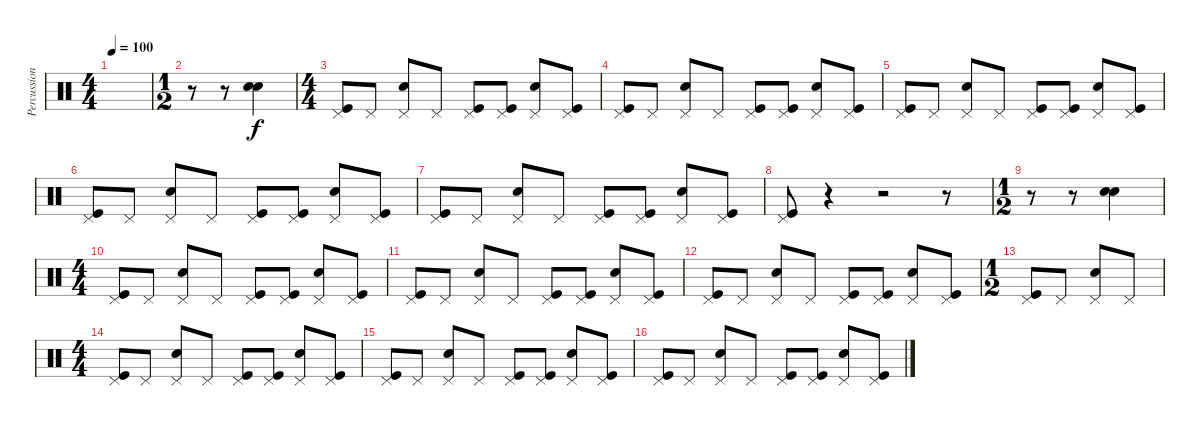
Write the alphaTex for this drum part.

\track ("Percussion" "Percussion") {instrument percussion}
\staff {score}
\articulation defaults
\ts (4 4)
\tempo 100
\clef neutral
\ks c
|
\ts (1 2)
r.8 r.8 ("Snare (hit) 2" "Snare (hit) 2").4 |
\ts (4 4)
("Kick (hit)" "Pedal Hi-Hat (hit)").8 "Pedal Hi-Hat (hit)".8 ("Snare (hit) 2" "Pedal Hi-Hat (hit)").8 "Pedal Hi-Hat (hit)".8 ("Kick (hit)" "Pedal Hi-Hat (hit)").8 ("Kick (hit)" "Pedal Hi-Hat (hit)").8 ("Snare (hit) 2" "Pedal Hi-Hat (hit)").8 ("Kick (hit)" "Pedal Hi-Hat (hit)").8 |
("Kick (hit)" "Pedal Hi-Hat (hit)").8 "Pedal Hi-Hat (hit)".8 ("Snare (hit) 2" "Pedal Hi-Hat (hit)").8 "Pedal Hi-Hat (hit)".8 ("Kick (hit)" "Pedal Hi-Hat (hit)").8 ("Kick (hit)" "Pedal Hi-Hat (hit)").8 ("Snare (hit) 2" "Pedal Hi-Hat (hit)").8 ("Kick (hit)" "Pedal Hi-Hat (hit)").8 |
("Kick (hit)" "Pedal Hi-Hat (hit)").8 "Pedal Hi-Hat (hit)".8 ("Snare (hit) 2" "Pedal Hi-Hat (hit)").8 "Pedal Hi-Hat (hit)".8 ("Kick (hit)" "Pedal Hi-Hat (hit)").8 ("Kick (hit)" "Pedal Hi-Hat (hit)").8 ("Snare (hit) 2" "Pedal Hi-Hat (hit)").8 ("Kick (hit)" "Pedal Hi-Hat (hit)").8 |
("Kick (hit)" "Pedal Hi-Hat (hit)").8 "Pedal Hi-Hat (hit)".8 ("Snare (hit) 2" "Pedal Hi-Hat (hit)").8 "Pedal Hi-Hat (hit)".8 ("Kick (hit)" "Pedal Hi-Hat (hit)").8 ("Kick (hit)" "Pedal Hi-Hat (hit)").8 ("Snare (hit) 2" "Pedal Hi-Hat (hit)").8 ("Kick (hit)" "Pedal Hi-Hat (hit)").8 |
("Kick (hit)" "Pedal Hi-Hat (hit)").8 "Pedal Hi-Hat (hit)".8 ("Snare (hit) 2" "Pedal Hi-Hat (hit)").8 "Pedal Hi-Hat (hit)".8 ("Kick (hit)" "Pedal Hi-Hat (hit)").8 ("Kick (hit)" "Pedal Hi-Hat (hit)").8 ("Snare (hit) 2" "Pedal Hi-Hat (hit)").8 ("Kick (hit)" "Pedal Hi-Hat (hit)").8 |
("Kick (hit)" "Pedal Hi-Hat (hit)").8 r.4 r.2 r.8 |
\ts (1 2)
r.8 r.8 ("Snare (hit) 2" "Snare (hit) 2").4 |
\ts (4 4)
("Kick (hit)" "Pedal Hi-Hat (hit)").8 "Pedal Hi-Hat (hit)".8 ("Snare (hit) 2" "Pedal Hi-Hat (hit)").8 "Pedal Hi-Hat (hit)".8 ("Kick (hit)" "Pedal Hi-Hat (hit)").8 ("Kick (hit)" "Pedal Hi-Hat (hit)").8 ("Snare (hit) 2" "Pedal Hi-Hat (hit)").8 ("Kick (hit)" "Pedal Hi-Hat (hit)").8 |
("Kick (hit)" "Pedal Hi-Hat (hit)").8 "Pedal Hi-Hat (hit)".8 ("Snare (hit) 2" "Pedal Hi-Hat (hit)").8 "Pedal Hi-Hat (hit)".8 ("Kick (hit)" "Pedal Hi-Hat (hit)").8 ("Kick (hit)" "Pedal Hi-Hat (hit)").8 ("Snare (hit) 2" "Pedal Hi-Hat (hit)").8 ("Kick (hit)" "Pedal Hi-Hat (hit)").8 |
("Kick (hit)" "Pedal Hi-Hat (hit)").8 "Pedal Hi-Hat (hit)".8 ("Snare (hit) 2" "Pedal Hi-Hat (hit)").8 "Pedal Hi-Hat (hit)".8 ("Kick (hit)" "Pedal Hi-Hat (hit)").8 ("Kick (hit)" "Pedal Hi-Hat (hit)").8 ("Snare (hit) 2" "Pedal Hi-Hat (hit)").8 ("Kick (hit)" "Pedal Hi-Hat (hit)").8 |
\ts (1 2)
("Kick (hit)" "Pedal Hi-Hat (hit)").8 "Pedal Hi-Hat (hit)".8 ("Snare (hit) 2" "Pedal Hi-Hat (hit)").8 "Pedal Hi-Hat (hit)".8 |
\ts (4 4)
("Kick (hit)" "Pedal Hi-Hat (hit)").8 "Pedal Hi-Hat (hit)".8 ("Snare (hit) 2" "Pedal Hi-Hat (hit)").8 "Pedal Hi-Hat (hit)".8 ("Kick (hit)" "Pedal Hi-Hat (hit)").8 ("Kick (hit)" "Pedal Hi-Hat (hit)").8 ("Snare (hit) 2" "Pedal Hi-Hat (hit)").8 ("Kick (hit)" "Pedal Hi-Hat (hit)").8 |
("Kick (hit)" "Pedal Hi-Hat (hit)").8 "Pedal Hi-Hat (hit)".8 ("Snare (hit) 2" "Pedal Hi-Hat (hit)").8 "Pedal Hi-Hat (hit)".8 ("Kick (hit)" "Pedal Hi-Hat (hit)").8 ("Kick (hit)" "Pedal Hi-Hat (hit)").8 ("Snare (hit) 2" "Pedal Hi-Hat (hit)").8 ("Kick (hit)" "Pedal Hi-Hat (hit)").8 |
("Kick (hit)" "Pedal Hi-Hat (hit)").8 "Pedal Hi-Hat (hit)".8 ("Snare (hit) 2" "Pedal Hi-Hat (hit)").8 "Pedal Hi-Hat (hit)".8 ("Kick (hit)" "Pedal Hi-Hat (hit)").8 ("Kick (hit)" "Pedal Hi-Hat (hit)").8 ("Snare (hit) 2" "Pedal Hi-Hat (hit)").8 ("Kick (hit)" "Pedal Hi-Hat (hit)").8
